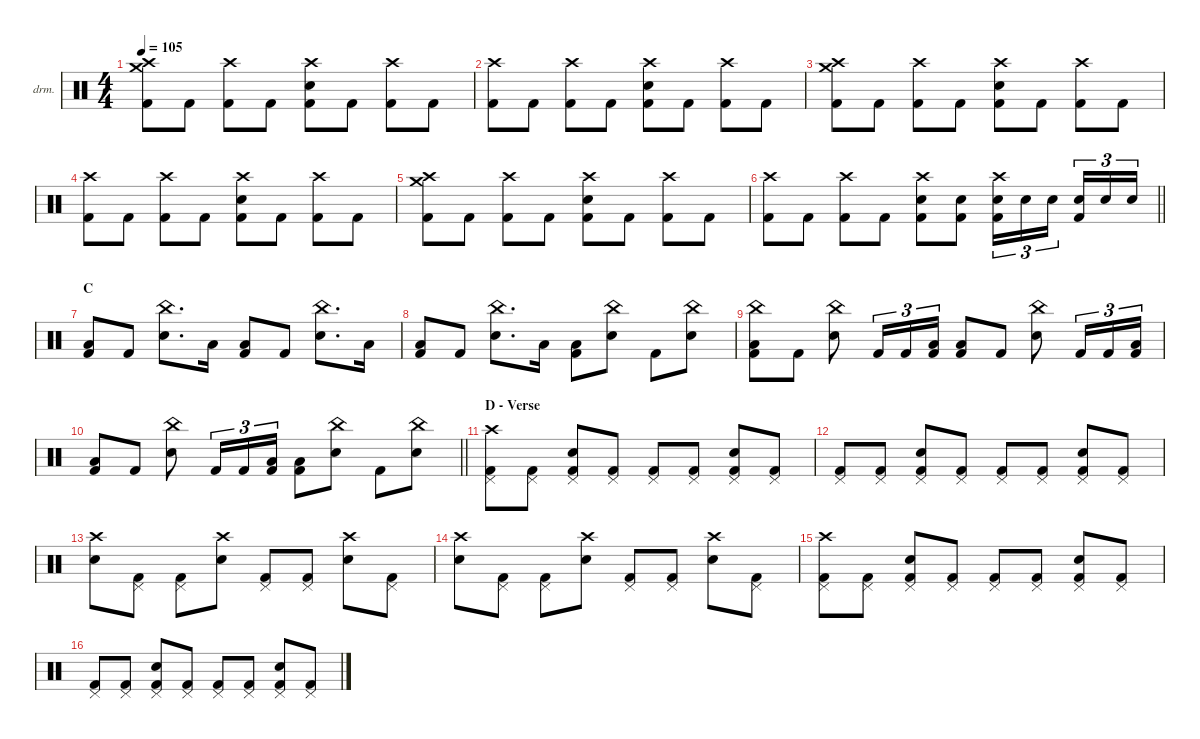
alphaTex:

\defaultSystemsLayout 4
\hideDynamics
\bracketExtendMode nobrackets
\firstSystemTrackNameOrientation horizontal
\otherSystemsTrackNameOrientation horizontal
\track ("Percussions" "drm.") {instrument percussion}
\staff {score}
\articulation defaults
\ts (4 4)
\tempo 105
\clef neutral
\ks c
("Crash medium (hit)" "Crash high (hit)" "Kick (hit) 2").8{dy f} "Kick (hit) 2".8 ("Crash high (hit)" "Kick (hit) 2").8 "Kick (hit) 2".8 ("Crash high (hit)" "Snare (hit) 2" "Kick (hit) 2").8 "Kick (hit) 2".8 ("Crash high (hit)" "Kick (hit) 2").8 "Kick (hit) 2".8 |
("Crash high (hit)" "Kick (hit) 2").8 "Kick (hit) 2".8 ("Crash high (hit)" "Kick (hit) 2").8 "Kick (hit) 2".8 ("Crash high (hit)" "Snare (hit) 2" "Kick (hit) 2").8 "Kick (hit) 2".8 ("Crash high (hit)" "Kick (hit) 2").8 "Kick (hit) 2".8 |
("Crash medium (hit)" "Crash high (hit)" "Kick (hit) 2").8 "Kick (hit) 2".8 ("Crash high (hit)" "Kick (hit) 2").8 "Kick (hit) 2".8 ("Crash high (hit)" "Snare (hit) 2" "Kick (hit) 2").8 "Kick (hit) 2".8 ("Crash high (hit)" "Kick (hit) 2").8 "Kick (hit) 2".8 |
("Crash high (hit)" "Kick (hit) 2").8 "Kick (hit) 2".8 ("Crash high (hit)" "Kick (hit) 2").8 "Kick (hit) 2".8 ("Crash high (hit)" "Snare (hit) 2" "Kick (hit) 2").8 "Kick (hit) 2".8 ("Crash high (hit)" "Kick (hit) 2").8 "Kick (hit) 2".8 |
("Crash medium (hit)" "Crash high (hit)" "Kick (hit) 2").8 "Kick (hit) 2".8 ("Crash high (hit)" "Kick (hit) 2").8 "Kick (hit) 2".8 ("Crash high (hit)" "Snare (hit) 2" "Kick (hit) 2").8 "Kick (hit) 2".8 ("Crash high (hit)" "Kick (hit) 2").8 "Kick (hit) 2".8 |
\barLineRight lightlight
("Crash high (hit)" "Kick (hit) 2").8 "Kick (hit) 2".8 ("Crash high (hit)" "Kick (hit) 2").8 "Kick (hit) 2".8 ("Crash high (hit)" "Snare (hit) 2" "Kick (hit) 2").8 ("Snare (hit) 2" "Kick (hit) 2").8 ("Crash high (hit)" "Snare (hit) 2" "Kick (hit) 2").16{tu (3 2)} "Snare (hit) 2".16{tu (3 2)} "Snare (hit) 2".16{tu (3 2)} ("Snare (hit) 2" "Kick (hit) 2").16{tu (3 2)} "Snare (hit) 2".16{tu (3 2)} "Snare (hit) 2".16{tu (3 2)} |
\section ("" "C")
("Low Tom (hit)" "Kick (hit) 2").8 "Kick (hit) 2".8 ("China (hit)" "Snare (hit) 2").8{d} "Low Tom (hit)".16 ("Low Tom (hit)" "Kick (hit) 2").8 "Kick (hit) 2".8 ("China (hit)" "Snare (hit) 2").8{d} "Low Tom (hit)".16 |
("Low Tom (hit)" "Kick (hit) 2").8 "Kick (hit) 2".8 ("China (hit)" "Snare (hit) 2").8{d} "Low Tom (hit)".16 ("Low Tom (hit)" "Kick (hit) 2").8 ("China (hit)" "Snare (hit) 2").8 "Kick (hit) 2".8 ("China (hit)" "Snare (hit) 2").8 |
("China (hit)" "Low Tom (hit)" "Kick (hit) 2").8 "Kick (hit) 2".8 ("China (hit)" "Snare (hit) 2").8 "Kick (hit) 2".16{tu (3 2) dy fff} "Kick (hit) 2".16{tu (3 2)} ("Low Tom (hit)" "Kick (hit) 2").16{tu (3 2) dy f} ("Low Tom (hit)" "Kick (hit) 2").8 "Kick (hit) 2".8 ("China (hit)" "Snare (hit) 2").8 "Kick (hit) 2".16{tu (3 2) dy fff} "Kick (hit) 2".16{tu (3 2)} ("Low Tom (hit)" "Kick (hit) 2").16{tu (3 2) dy f} |
\barLineRight lightlight
("Low Tom (hit)" "Kick (hit) 2").8 "Kick (hit) 2".8{dy fff} ("China (hit)" "Snare (hit) 2").8{dy f} "Kick (hit) 2".16{tu (3 2) dy fff} "Kick (hit) 2".16{tu (3 2)} ("Low Tom (hit)" "Kick (hit) 2").16{tu (3 2) dy f} ("Low Tom (hit)" "Kick (hit) 2").8 ("China (hit)" "Snare (hit) 2").8 "Kick (hit) 2".8 ("China (hit)" "Snare (hit) 2").8 |
\section ("" "D - Verse")
("Crash high (hit)" "Pedal Hi-Hat (hit)" "Kick (hit) 2").8 ("Pedal Hi-Hat (hit)" "Kick (hit) 2").8 ("Pedal Hi-Hat (hit)" "Snare (hit) 2" "Kick (hit) 2").8 ("Pedal Hi-Hat (hit)" "Kick (hit) 2").8 ("Pedal Hi-Hat (hit)" "Kick (hit) 2").8 ("Pedal Hi-Hat (hit)" "Kick (hit) 2").8 ("Pedal Hi-Hat (hit)" "Snare (hit) 2" "Kick (hit) 2").8 ("Pedal Hi-Hat (hit)" "Kick (hit) 2").8 |
("Pedal Hi-Hat (hit)" "Kick (hit) 2").8 ("Pedal Hi-Hat (hit)" "Kick (hit) 2").8 ("Pedal Hi-Hat (hit)" "Snare (hit) 2" "Kick (hit) 2").8 ("Pedal Hi-Hat (hit)" "Kick (hit) 2").8 ("Pedal Hi-Hat (hit)" "Kick (hit) 2").8 ("Pedal Hi-Hat (hit)" "Kick (hit) 2").8 ("Pedal Hi-Hat (hit)" "Snare (hit) 2" "Kick (hit) 2").8 ("Pedal Hi-Hat (hit)" "Kick (hit) 2").8 |
("Crash high (hit)" "Snare (hit) 2").8 ("Pedal Hi-Hat (hit)" "Kick (hit) 2").8 ("Pedal Hi-Hat (hit)" "Kick (hit) 2").8 ("Crash high (hit)" "Snare (hit) 2").8 ("Pedal Hi-Hat (hit)" "Kick (hit) 2").8 ("Pedal Hi-Hat (hit)" "Kick (hit) 2").8 ("Crash high (hit)" "Snare (hit) 2").8 ("Pedal Hi-Hat (hit)" "Kick (hit) 2").8 |
("Crash high (hit)" "Snare (hit) 2").8 ("Pedal Hi-Hat (hit)" "Kick (hit) 2").8 ("Pedal Hi-Hat (hit)" "Kick (hit) 2").8 ("Crash high (hit)" "Snare (hit) 2").8 ("Pedal Hi-Hat (hit)" "Kick (hit) 2").8 ("Pedal Hi-Hat (hit)" "Kick (hit) 2").8 ("Crash high (hit)" "Snare (hit) 2").8 ("Pedal Hi-Hat (hit)" "Kick (hit) 2").8 |
("Crash high (hit)" "Pedal Hi-Hat (hit)" "Kick (hit) 2").8 ("Pedal Hi-Hat (hit)" "Kick (hit) 2").8 ("Pedal Hi-Hat (hit)" "Snare (hit) 2" "Kick (hit) 2").8 ("Pedal Hi-Hat (hit)" "Kick (hit) 2").8 ("Pedal Hi-Hat (hit)" "Kick (hit) 2").8 ("Pedal Hi-Hat (hit)" "Kick (hit) 2").8 ("Pedal Hi-Hat (hit)" "Snare (hit) 2" "Kick (hit) 2").8 ("Pedal Hi-Hat (hit)" "Kick (hit) 2").8 |
("Pedal Hi-Hat (hit)" "Kick (hit) 2").8 ("Pedal Hi-Hat (hit)" "Kick (hit) 2").8 ("Pedal Hi-Hat (hit)" "Snare (hit) 2" "Kick (hit) 2").8 ("Pedal Hi-Hat (hit)" "Kick (hit) 2").8 ("Pedal Hi-Hat (hit)" "Kick (hit) 2").8 ("Pedal Hi-Hat (hit)" "Kick (hit) 2").8 ("Pedal Hi-Hat (hit)" "Snare (hit) 2" "Kick (hit) 2").8 ("Pedal Hi-Hat (hit)" "Kick (hit) 2").8
